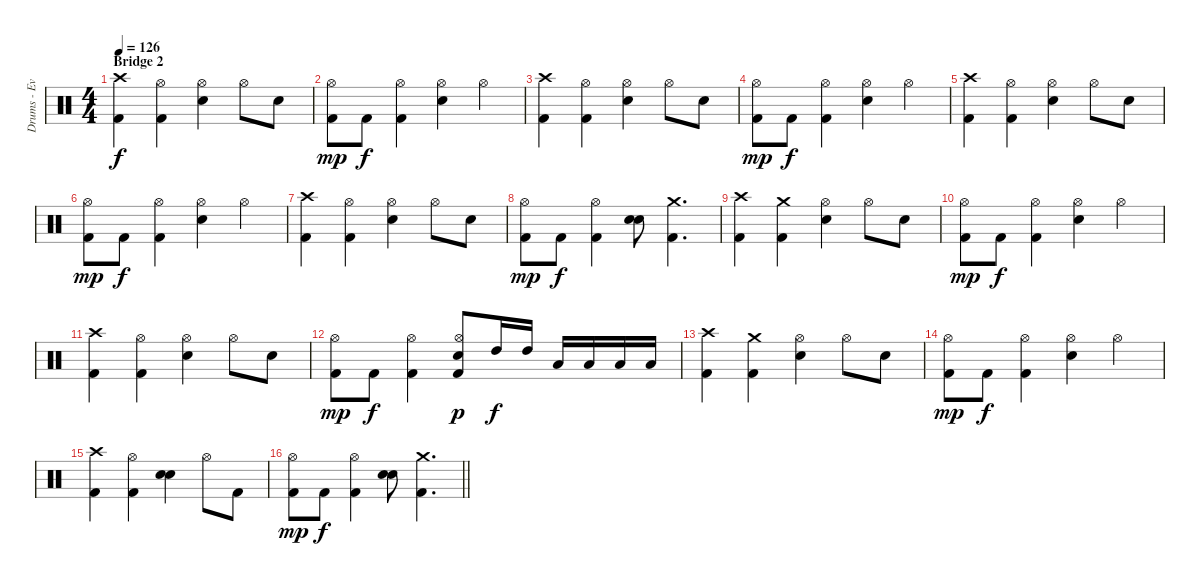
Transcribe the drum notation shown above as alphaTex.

\track ("Drums - Evans" "Drums - Ev") {instrument percussion}
\staff {score}
\articulation defaults
\ts (4 4)
\section ("" "Bridge 2")
\tempo 126
\clef neutral
\ks c
("Crash high (hit)" "Kick (hit) 2").4{dy f} ("Hi-Hat (open)" "Kick (hit) 2").4 ("Hi-Hat (open)" "Electric Snare (hit)").4 "Hi-Hat (open)".8 "Electric Snare (hit)".8 |
("Hi-Hat (open)" "Kick (hit) 2").8{dy mp} "Kick (hit) 2".8{dy f} ("Hi-Hat (open)" "Kick (hit) 2").4 ("Hi-Hat (open)" "Electric Snare (hit)").4 "Hi-Hat (open)".4 |
("Crash high (hit)" "Kick (hit) 2").4 ("Hi-Hat (open)" "Kick (hit) 2").4 ("Hi-Hat (open)" "Electric Snare (hit)").4 "Hi-Hat (open)".8 "Electric Snare (hit)".8 |
("Hi-Hat (open)" "Kick (hit) 2").8{dy mp} "Kick (hit) 2".8{dy f} ("Hi-Hat (open)" "Kick (hit) 2").4 ("Hi-Hat (open)" "Electric Snare (hit)").4 "Hi-Hat (open)".4 |
("Crash high (hit)" "Kick (hit) 2").4 ("Hi-Hat (open)" "Kick (hit) 2").4 ("Hi-Hat (open)" "Electric Snare (hit)").4 "Hi-Hat (open)".8 "Electric Snare (hit)".8 |
("Hi-Hat (open)" "Kick (hit) 2").8{dy mp} "Kick (hit) 2".8{dy f} ("Hi-Hat (open)" "Kick (hit) 2").4 ("Hi-Hat (open)" "Electric Snare (hit)").4 "Hi-Hat (open)".4 |
("Crash high (hit)" "Kick (hit) 2").4 ("Hi-Hat (open)" "Kick (hit) 2").4 ("Hi-Hat (open)" "Electric Snare (hit)").4 "Hi-Hat (open)".8 "Electric Snare (hit)".8 |
("Hi-Hat (open)" "Kick (hit) 2").8{dy mp} "Kick (hit) 2".8{dy f} ("Hi-Hat (open)" "Kick (hit) 2").4 ("Electric Snare (hit)" "Electric Snare (hit)").8 ("Crash medium (hit)" "Kick (hit) 2").4{d} |
("Crash high (hit)" "Kick (hit) 2").4 ("Crash medium (hit)" "Kick (hit) 2").4 ("Hi-Hat (open)" "Electric Snare (hit)").4 "Hi-Hat (open)".8 "Electric Snare (hit)".8 |
("Hi-Hat (open)" "Kick (hit) 2").8{dy mp} "Kick (hit) 2".8{dy f} ("Hi-Hat (open)" "Kick (hit) 2").4 ("Hi-Hat (open)" "Electric Snare (hit)").4 "Hi-Hat (open)".4 |
("Crash high (hit)" "Kick (hit) 2").4 ("Hi-Hat (open)" "Kick (hit) 2").4 ("Hi-Hat (open)" "Electric Snare (hit)").4 "Hi-Hat (open)".8 "Electric Snare (hit)".8 |
("Hi-Hat (open)" "Kick (hit) 2").8{dy mp} "Kick (hit) 2".8{dy f} ("Hi-Hat (open)" "Kick (hit) 2").4 ("Hi-Hat (open)" "Kick (hit) 2" "Electric Snare (hit)").8{dy p} "High Tom (hit)".16{dy f} "High Tom (hit)".16 "Low Tom (hit)".16 "Low Tom (hit)".16 "Low Floor Tom (hit)".16 "Low Floor Tom (hit)".16 |
("Crash high (hit)" "Kick (hit) 2").4 ("Crash medium (hit)" "Kick (hit) 2").4 ("Hi-Hat (open)" "Electric Snare (hit)").4 "Hi-Hat (open)".8 "Electric Snare (hit)".8 |
("Hi-Hat (open)" "Kick (hit) 2").8{dy mp} "Kick (hit) 2".8{dy f} ("Hi-Hat (open)" "Kick (hit) 2").4 ("Hi-Hat (open)" "Electric Snare (hit)").4 "Hi-Hat (open)".4 |
("Crash high (hit)" "Kick (hit) 2").4 ("Hi-Hat (open)" "Kick (hit) 2").4 ("Electric Snare (hit)" "Electric Snare (hit)").4 "Hi-Hat (open)".8 "Kick (hit) 2".8 |
\barLineRight lightlight
("Hi-Hat (open)" "Kick (hit) 2").8{dy mp} "Kick (hit) 2".8{dy f} ("Hi-Hat (open)" "Kick (hit) 2").4 ("Electric Snare (hit)" "Electric Snare (hit)").8 ("Crash medium (hit)" "Kick (hit) 2").4{d}
